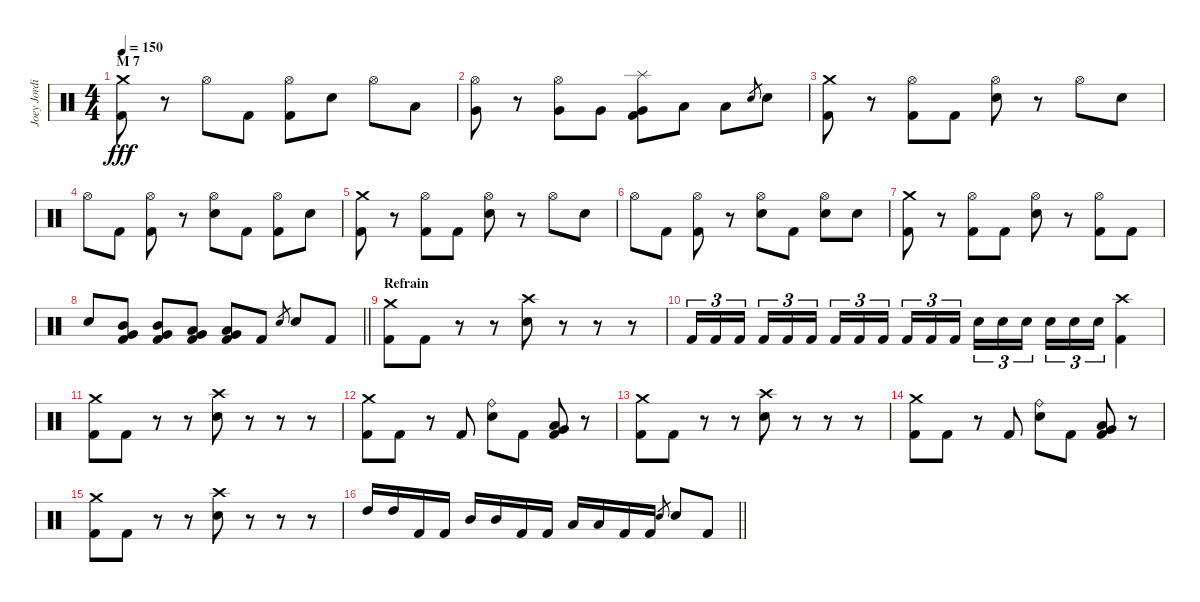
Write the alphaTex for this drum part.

\track ("Joey Jordison" "Joey Jordi") {instrument percussion}
\staff {score}
\articulation defaults
\ts (4 4)
\section ("" "M 7")
\tempo 150
\clef neutral
\ks c
("Crash medium (hit)" "Kick (hit) 2").8{dy fff} r.8 "Hi-Hat (open)".8 "Kick (hit) 2".8 ("Hi-Hat (open)" "Kick (hit) 2").8 "Electric Snare (hit)".8 "Hi-Hat (open)".8 "Low Tom (hit)".8 |
("Hi-Hat (open)" "Very Low Tom (hit)").8 r.8 ("Hi-Hat (open)" "Very Low Tom (hit)").8 "Very Low Tom (hit)".8 ("Splash (hit)" "Very Low Tom (hit)" "Kick (hit) 2").8 "Low Floor Tom (hit)".8 "Low Floor Tom (hit)".8 "Electric Snare (hit)".8{gr} "Electric Snare (hit)".8 |
("Crash medium (hit)" "Kick (hit) 2").8 r.8 ("Hi-Hat (open)" "Kick (hit) 2").8 "Kick (hit) 2".8 ("Hi-Hat (open)" "Electric Snare (hit)").8 r.8 "Hi-Hat (open)".8 "Electric Snare (hit)".8 |
"Hi-Hat (open)".8 "Kick (hit) 2".8 ("Hi-Hat (open)" "Kick (hit) 2").8 r.8 ("Hi-Hat (open)" "Electric Snare (hit)").8 "Kick (hit) 2".8 ("Hi-Hat (open)" "Kick (hit) 2").8 "Electric Snare (hit)".8 |
("Crash medium (hit)" "Kick (hit) 2").8 r.8 ("Hi-Hat (open)" "Kick (hit) 2").8 "Kick (hit) 2".8 ("Hi-Hat (open)" "Electric Snare (hit)").8 r.8 "Hi-Hat (open)".8 "Electric Snare (hit)".8 |
"Hi-Hat (open)".8 "Kick (hit) 2".8 ("Hi-Hat (open)" "Kick (hit) 2").8 r.8 ("Hi-Hat (open)" "Electric Snare (hit)").8 "Kick (hit) 2".8 ("Hi-Hat (open)" "Electric Snare (hit)").8 "Electric Snare (hit)".8 |
("Crash medium (hit)" "Kick (hit) 2").8 r.8 ("Hi-Hat (open)" "Kick (hit) 2").8 "Kick (hit) 2".8 ("Hi-Hat (open)" "Electric Snare (hit)").8 r.8 ("Hi-Hat (open)" "Kick (hit) 2").8 "Kick (hit) 2".8 |
\barLineRight lightlight "Electric Snare (hit)".8
("Mid Tom (hit)" "Very Low Tom (hit)" "Kick (hit) 2").8 ("Mid Tom (hit)" "Very Low Tom (hit)" "Kick (hit) 2").8 ("Low Tom (hit)" "Very Low Tom (hit)" "Kick (hit) 2").8 ("Low Tom (hit)" "Very Low Tom (hit)" "Kick (hit) 2").8 "Kick (hit) 2".8 "Electric Snare (hit)".8{gr} "Electric Snare (hit)".8 "Kick (hit) 2".8 |
\section ("" "Refrain")
("Crash medium (hit)" "Kick (hit) 2").8 "Kick (hit) 2".8 r.8 r.8 ("Crash high (hit)" "Electric Snare (hit)").8 r.8 r.8 r.8 |
"Kick (hit) 2".16{tu (3 2)} "Kick (hit) 2".16{tu (3 2)} "Kick (hit) 2".16{tu (3 2) beam splitsecondary} "Kick (hit) 2".16{tu (3 2)} "Kick (hit) 2".16{tu (3 2)} "Kick (hit) 2".16{tu (3 2)} "Kick (hit) 2".16{tu (3 2)} "Kick (hit) 2".16{tu (3 2)} "Kick (hit) 2".16{tu (3 2) beam splitsecondary} "Kick (hit) 2".16{tu (3 2)} "Kick (hit) 2".16{tu (3 2)} "Kick (hit) 2".16{tu (3 2)} "Electric Snare (hit)".16{tu (3 2)} "Electric Snare (hit)".16{tu (3 2)} "Electric Snare (hit)".16{tu (3 2) beam splitsecondary} "Electric Snare (hit)".16{tu (3 2)} "Electric Snare (hit)".16{tu (3 2)} "Electric Snare (hit)".16{tu (3 2)} ("Crash high (hit)" "Kick (hit) 2").4 |
("Crash medium (hit)" "Kick (hit) 2").8 "Kick (hit) 2".8 r.8 r.8 ("Crash high (hit)" "Electric Snare (hit)").8 r.8 r.8 r.8 |
("Crash medium (hit)" "Kick (hit) 2").8 "Kick (hit) 2".8 r.8 "Kick (hit) 2".8 ("Ride (bell)" "Electric Snare (hit)").8 "Kick (hit) 2".8 ("Very Low Tom (hit)" "Low Floor Tom (hit)" "Kick (hit) 2").8 r.8 |
("Crash medium (hit)" "Kick (hit) 2").8 "Kick (hit) 2".8 r.8 r.8 ("Crash high (hit)" "Electric Snare (hit)").8 r.8 r.8 r.8 |
("Crash medium (hit)" "Kick (hit) 2").8 "Kick (hit) 2".8 r.8 "Kick (hit) 2".8 ("Ride (bell)" "Electric Snare (hit)").8 "Kick (hit) 2".8 ("Very Low Tom (hit)" "Low Floor Tom (hit)" "Kick (hit) 2").8 r.8 |
("Crash medium (hit)" "Kick (hit) 2").8 "Kick (hit) 2".8 r.8 r.8 ("Crash high (hit)" "Electric Snare (hit)").8 r.8 r.8 r.8 |
\barLineRight lightlight "High Tom (hit)".16 "High Tom (hit)".16 "Kick (hit) 2".16 "Kick (hit) 2".16 "Mid Tom (hit)".16 "Mid Tom (hit)".16 "Kick (hit) 2".16 "Kick (hit) 2".16 "Low Tom (hit)".16 "Low Tom (hit)".16 "Kick (hit) 2".16 "Kick (hit) 2".16 "Electric Snare (hit)".8{gr} "Electric Snare (hit)".8 "Kick (hit) 2".8
